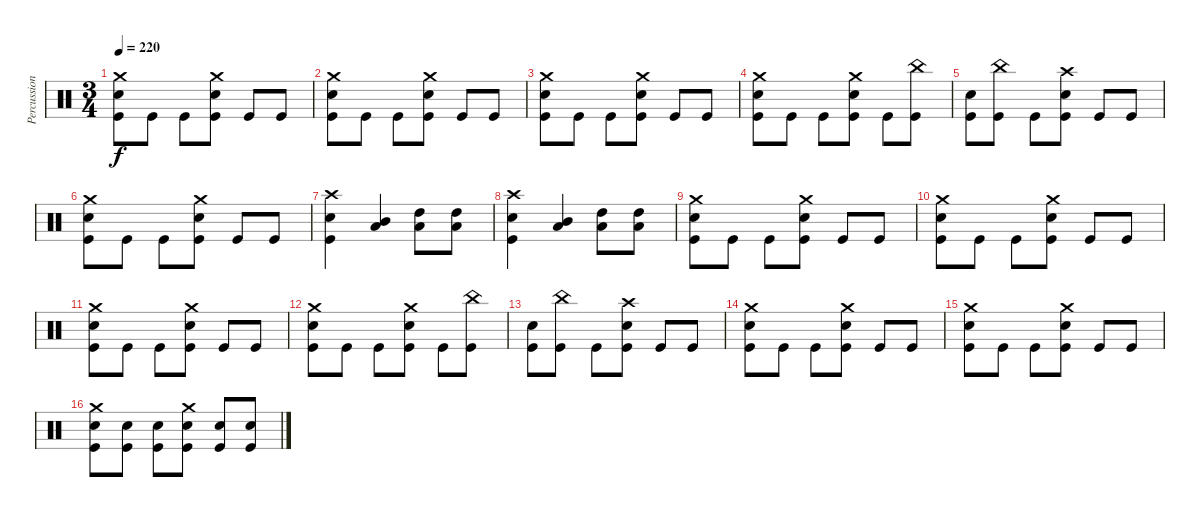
\track ("Percussion" "Percussion") {instrument percussion}
\staff {score}
\articulation defaults
\ts (3 4)
\tempo 220
\clef neutral
\ks c
("Crash medium (hit)" "Electric Snare (hit)" "Kick (hit)").8{dy f} "Kick (hit)".8 "Kick (hit)".8 ("Crash medium (hit)" "Electric Snare (hit)" "Kick (hit)").8 "Kick (hit)".8 "Kick (hit)".8 |
("Crash medium (hit)" "Electric Snare (hit)" "Kick (hit)").8 "Kick (hit)".8 "Kick (hit)".8 ("Crash medium (hit)" "Electric Snare (hit)" "Kick (hit)").8 "Kick (hit)".8 "Kick (hit)".8 |
("Crash medium (hit)" "Electric Snare (hit)" "Kick (hit)").8 "Kick (hit)".8 "Kick (hit)".8 ("Crash medium (hit)" "Electric Snare (hit)" "Kick (hit)").8 "Kick (hit)".8 "Kick (hit)".8 |
("Crash medium (hit)" "Electric Snare (hit)" "Kick (hit)").8 "Kick (hit)".8 "Kick (hit)".8 ("Crash medium (hit)" "Electric Snare (hit)" "Kick (hit)").8 "Kick (hit)".8 ("China (hit)" "Kick (hit)").8 |
("Electric Snare (hit)" "Kick (hit)").8 ("China (hit)" "Kick (hit)").8 "Kick (hit)".8 ("Crash high (hit)" "Electric Snare (hit)" "Kick (hit)").8 "Kick (hit)".8 "Kick (hit)".8 |
("Crash medium (hit)" "Electric Snare (hit)" "Kick (hit)").8 "Kick (hit)".8 "Kick (hit)".8 ("Crash medium (hit)" "Electric Snare (hit)" "Kick (hit)").8 "Kick (hit)".8 "Kick (hit)".8 |
("Crash high (hit)" "Electric Snare (hit)" "Kick (hit)").4 ("Mid Tom (hit)" "Low Floor Tom (hit)").4 ("High Tom (hit)" "Low Floor Tom (hit)").8 ("High Tom (hit)" "Low Floor Tom (hit)").8 |
("Crash high (hit)" "Electric Snare (hit)" "Kick (hit)").4 ("Mid Tom (hit)" "Low Floor Tom (hit)").4 ("High Tom (hit)" "Low Floor Tom (hit)").8 ("High Tom (hit)" "Low Floor Tom (hit)").8 |
("Crash medium (hit)" "Electric Snare (hit)" "Kick (hit)").8 "Kick (hit)".8 "Kick (hit)".8 ("Crash medium (hit)" "Electric Snare (hit)" "Kick (hit)").8 "Kick (hit)".8 "Kick (hit)".8 |
("Crash medium (hit)" "Electric Snare (hit)" "Kick (hit)").8 "Kick (hit)".8 "Kick (hit)".8 ("Crash medium (hit)" "Electric Snare (hit)" "Kick (hit)").8 "Kick (hit)".8 "Kick (hit)".8 |
("Crash medium (hit)" "Electric Snare (hit)" "Kick (hit)").8 "Kick (hit)".8 "Kick (hit)".8 ("Crash medium (hit)" "Electric Snare (hit)" "Kick (hit)").8 "Kick (hit)".8 "Kick (hit)".8 |
("Crash medium (hit)" "Electric Snare (hit)" "Kick (hit)").8 "Kick (hit)".8 "Kick (hit)".8 ("Crash medium (hit)" "Electric Snare (hit)" "Kick (hit)").8 "Kick (hit)".8 ("China (hit)" "Kick (hit)").8 |
("Electric Snare (hit)" "Kick (hit)").8 ("China (hit)" "Kick (hit)").8 "Kick (hit)".8 ("Crash high (hit)" "Electric Snare (hit)" "Kick (hit)").8 "Kick (hit)".8 "Kick (hit)".8 |
("Crash medium (hit)" "Electric Snare (hit)" "Kick (hit)").8 "Kick (hit)".8 "Kick (hit)".8 ("Crash medium (hit)" "Electric Snare (hit)" "Kick (hit)").8 "Kick (hit)".8 "Kick (hit)".8 |
("Crash medium (hit)" "Electric Snare (hit)" "Kick (hit)").8 "Kick (hit)".8 "Kick (hit)".8 ("Crash medium (hit)" "Electric Snare (hit)" "Kick (hit)").8 "Kick (hit)".8 "Kick (hit)".8 |
("Crash medium (hit)" "Electric Snare (hit)" "Kick (hit)").8 ("Electric Snare (hit)" "Kick (hit)").8 ("Electric Snare (hit)" "Kick (hit)").8 ("Crash medium (hit)" "Electric Snare (hit)" "Kick (hit)").8 ("Electric Snare (hit)" "Kick (hit)").8 ("Electric Snare (hit)" "Kick (hit)").8
